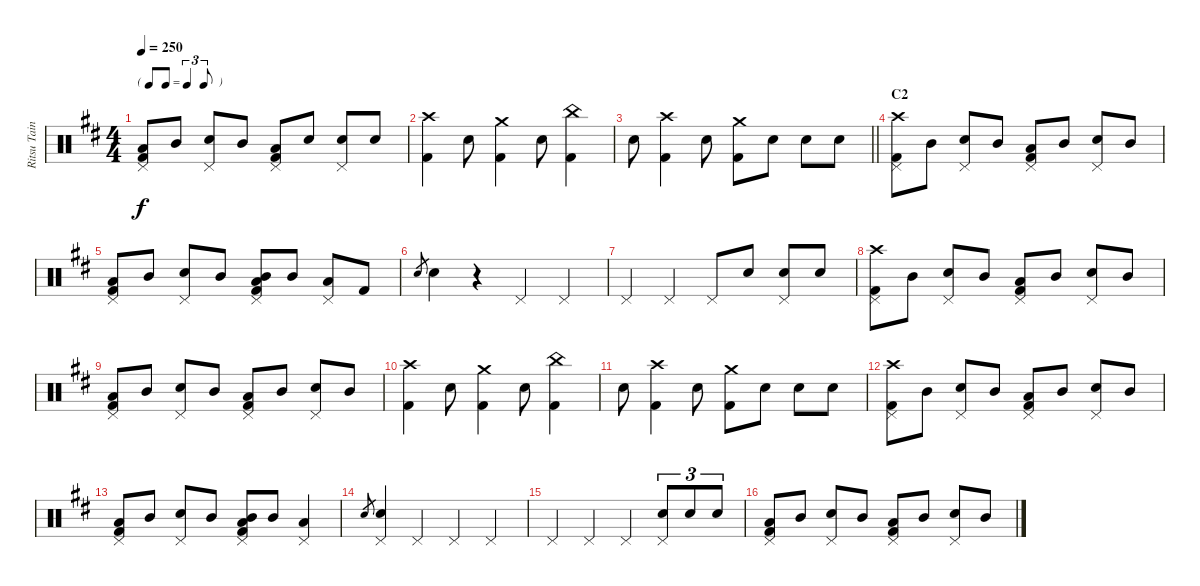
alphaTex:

\track ("Ritsu Tainaka" "Ritsu Tain") {instrument percussion}
\staff {score}
\articulation defaults
\ts (4 4)
\tf triplet8th
\tempo 250
\clef neutral
\ks d
("Pedal Hi-Hat (hit)" "Low Floor Tom (hit)" "Kick (hit) 2").8{dy f} "Mid Tom (hit)".8 ("Pedal Hi-Hat (hit)" "Electric Snare (hit)").8 "Mid Tom (hit)".8 ("Pedal Hi-Hat (hit)" "Low Floor Tom (hit)" "Kick (hit) 2").8 "Electric Snare (hit)".8 ("Pedal Hi-Hat (hit)" "Electric Snare (hit)").8 "Electric Snare (hit)".8 |
("Crash high (hit)" "Kick (hit) 2").4 "Electric Snare (hit)".8 ("Crash medium (hit)" "Kick (hit) 2").4 "Electric Snare (hit)".8 ("China (hit)" "Kick (hit) 2").4 |
\barLineRight lightlight "Electric Snare (hit)".8
("Crash high (hit)" "Kick (hit) 2").4 "Electric Snare (hit)".8 ("Crash medium (hit)" "Kick (hit) 2").8 "Electric Snare (hit)".8 "Electric Snare (hit)".8 "Electric Snare (hit)".8 |
\section ("" "C2")
("Crash high (hit)" "Pedal Hi-Hat (hit)" "Kick (hit) 2").8 "Mid Tom (hit)".8 ("Pedal Hi-Hat (hit)" "Electric Snare (hit)").8 "Mid Tom (hit)".8 ("Pedal Hi-Hat (hit)" "Low Floor Tom (hit)" "Kick (hit) 2").8 "Mid Tom (hit)".8 ("Pedal Hi-Hat (hit)" "Electric Snare (hit)").8 "Mid Tom (hit)".8 |
("Pedal Hi-Hat (hit)" "Low Floor Tom (hit)" "Kick (hit) 2").8 "Mid Tom (hit)".8 ("Pedal Hi-Hat (hit)" "Electric Snare (hit)").8 "Mid Tom (hit)".8 ("Pedal Hi-Hat (hit)" "Mid Tom (hit)" "Low Floor Tom (hit)" "Kick (hit) 2").8 "Mid Tom (hit)".8 ("Pedal Hi-Hat (hit)" "Low Floor Tom (hit)").8 "Kick (hit) 2".8 |
"Electric Snare (hit)".8{gr} "Electric Snare (hit)".4 r.4 "Pedal Hi-Hat (hit)".4 "Pedal Hi-Hat (hit)".4 |
"Pedal Hi-Hat (hit)".4 "Pedal Hi-Hat (hit)".4 "Pedal Hi-Hat (hit)".8 "Electric Snare (hit)".8 ("Pedal Hi-Hat (hit)" "Electric Snare (hit)").8 "Electric Snare (hit)".8 |
("Crash high (hit)" "Pedal Hi-Hat (hit)" "Kick (hit) 2").8 "Mid Tom (hit)".8 ("Pedal Hi-Hat (hit)" "Electric Snare (hit)").8 "Mid Tom (hit)".8 ("Pedal Hi-Hat (hit)" "Low Floor Tom (hit)" "Kick (hit) 2").8 "Mid Tom (hit)".8 ("Pedal Hi-Hat (hit)" "Electric Snare (hit)").8 "Mid Tom (hit)".8 |
("Pedal Hi-Hat (hit)" "Low Floor Tom (hit)" "Kick (hit) 2").8 "Mid Tom (hit)".8 ("Pedal Hi-Hat (hit)" "Electric Snare (hit)").8 "Mid Tom (hit)".8 ("Pedal Hi-Hat (hit)" "Low Floor Tom (hit)" "Kick (hit) 2").8 "Mid Tom (hit)".8 ("Pedal Hi-Hat (hit)" "Electric Snare (hit)").8 "Mid Tom (hit)".8 |
("Crash high (hit)" "Kick (hit) 2").4 "Electric Snare (hit)".8 ("Crash medium (hit)" "Kick (hit) 2").4 "Electric Snare (hit)".8 ("China (hit)" "Kick (hit) 2").4 |
"Electric Snare (hit)".8 ("Crash high (hit)" "Kick (hit) 2").4 "Electric Snare (hit)".8 ("Crash medium (hit)" "Kick (hit) 2").8 "Electric Snare (hit)".8 "Electric Snare (hit)".8 "Electric Snare (hit)".8 |
("Crash high (hit)" "Pedal Hi-Hat (hit)" "Kick (hit) 2").8 "Mid Tom (hit)".8 ("Pedal Hi-Hat (hit)" "Electric Snare (hit)").8 "Mid Tom (hit)".8 ("Pedal Hi-Hat (hit)" "Low Floor Tom (hit)" "Kick (hit) 2").8 "Mid Tom (hit)".8 ("Pedal Hi-Hat (hit)" "Electric Snare (hit)").8 "Mid Tom (hit)".8 |
("Pedal Hi-Hat (hit)" "Low Floor Tom (hit)" "Kick (hit) 2").8 "Mid Tom (hit)".8 ("Pedal Hi-Hat (hit)" "Electric Snare (hit)").8 "Mid Tom (hit)".8 ("Pedal Hi-Hat (hit)" "Mid Tom (hit)" "Low Floor Tom (hit)" "Kick (hit) 2").8 "Mid Tom (hit)".8 ("Pedal Hi-Hat (hit)" "Low Floor Tom (hit)").4 |
"Electric Snare (hit)".8{gr} ("Pedal Hi-Hat (hit)" "Electric Snare (hit)").4 "Pedal Hi-Hat (hit)".4 "Pedal Hi-Hat (hit)".4 "Pedal Hi-Hat (hit)".4 |
"Pedal Hi-Hat (hit)".4 "Pedal Hi-Hat (hit)".4 "Pedal Hi-Hat (hit)".4 ("Pedal Hi-Hat (hit)" "Electric Snare (hit)").8{tu (3 2)} "Electric Snare (hit)".8{tu (3 2)} "Electric Snare (hit)".8{tu (3 2)} |
("Pedal Hi-Hat (hit)" "Low Floor Tom (hit)" "Kick (hit) 2").8 "Mid Tom (hit)".8 ("Pedal Hi-Hat (hit)" "Electric Snare (hit)").8 "Mid Tom (hit)".8 ("Pedal Hi-Hat (hit)" "Low Floor Tom (hit)" "Kick (hit) 2").8 "Mid Tom (hit)".8 ("Pedal Hi-Hat (hit)" "Electric Snare (hit)").8 "Mid Tom (hit)".8
